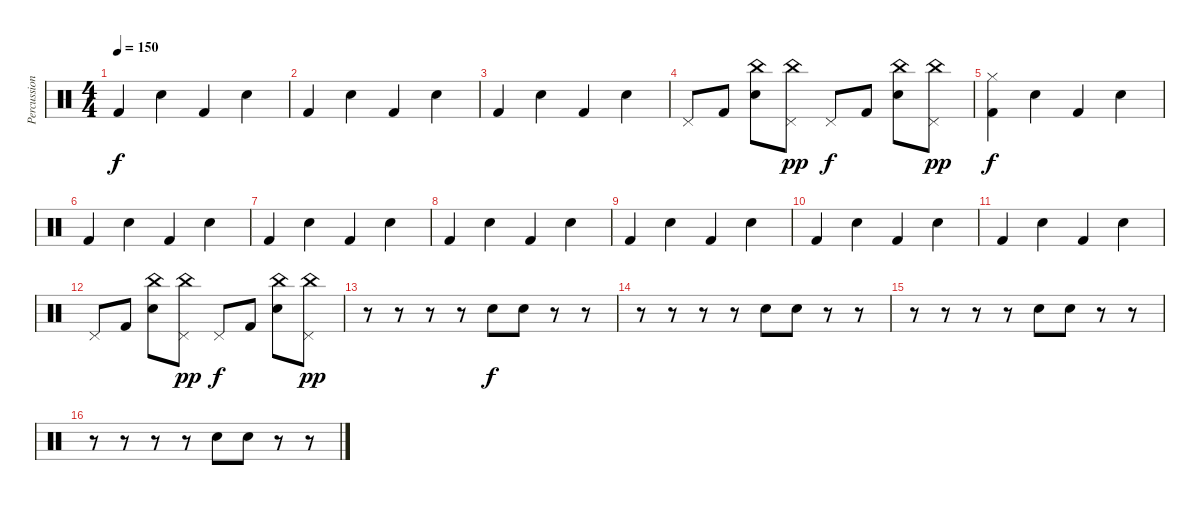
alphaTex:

\track ("Percussion" "Percussion") {instrument percussion}
\staff {score}
\articulation defaults
\ts (4 4)
\tempo 150
\clef neutral
\ks c "Kick (hit) 2".4{dy f} "Electric Snare (hit)".4 "Kick (hit) 2".4 "Electric Snare (hit)".4
|
"Kick (hit) 2".4 "Electric Snare (hit)".4 "Kick (hit) 2".4 "Electric Snare (hit)".4 |
"Kick (hit) 2".4 "Electric Snare (hit)".4 "Kick (hit) 2".4 "Electric Snare (hit)".4 |
"Pedal Hi-Hat (hit)".8 "Kick (hit) 2".8 ("China (hit)" "Electric Snare (hit)").8 ("Pedal Hi-Hat (hit)" "China (hit)").8{dy pp} "Pedal Hi-Hat (hit)".8{dy f} "Kick (hit) 2".8 ("China (hit)" "Electric Snare (hit)").8 ("Pedal Hi-Hat (hit)" "China (hit)").8{dy pp} |
("Hi-Hat (closed)" "Kick (hit) 2").4{dy f} "Electric Snare (hit)".4 "Kick (hit) 2".4 "Electric Snare (hit)".4 |
"Kick (hit) 2".4 "Electric Snare (hit)".4 "Kick (hit) 2".4 "Electric Snare (hit)".4 |
"Kick (hit) 2".4 "Electric Snare (hit)".4 "Kick (hit) 2".4 "Electric Snare (hit)".4 |
"Kick (hit) 2".4 "Electric Snare (hit)".4 "Kick (hit) 2".4 "Electric Snare (hit)".4 |
"Kick (hit) 2".4 "Electric Snare (hit)".4 "Kick (hit) 2".4 "Electric Snare (hit)".4 |
"Kick (hit) 2".4 "Electric Snare (hit)".4 "Kick (hit) 2".4 "Electric Snare (hit)".4 |
"Kick (hit) 2".4 "Electric Snare (hit)".4 "Kick (hit) 2".4 "Electric Snare (hit)".4 |
"Pedal Hi-Hat (hit)".8 "Kick (hit) 2".8 ("China (hit)" "Electric Snare (hit)").8 ("Pedal Hi-Hat (hit)" "China (hit)").8{dy pp} "Pedal Hi-Hat (hit)".8{dy f} "Kick (hit) 2".8 ("China (hit)" "Electric Snare (hit)").8 ("Pedal Hi-Hat (hit)" "China (hit)").8{dy pp} |
r.8 r.8 r.8 r.8 "Electric Snare (hit)".8{dy f} "Electric Snare (hit)".8 r.8 r.8 |
r.8 r.8 r.8 r.8 "Electric Snare (hit)".8 "Electric Snare (hit)".8 r.8 r.8 |
r.8 r.8 r.8 r.8 "Electric Snare (hit)".8 "Electric Snare (hit)".8 r.8 r.8 |
r.8 r.8 r.8 r.8 "Electric Snare (hit)".8 "Electric Snare (hit)".8 r.8 r.8
